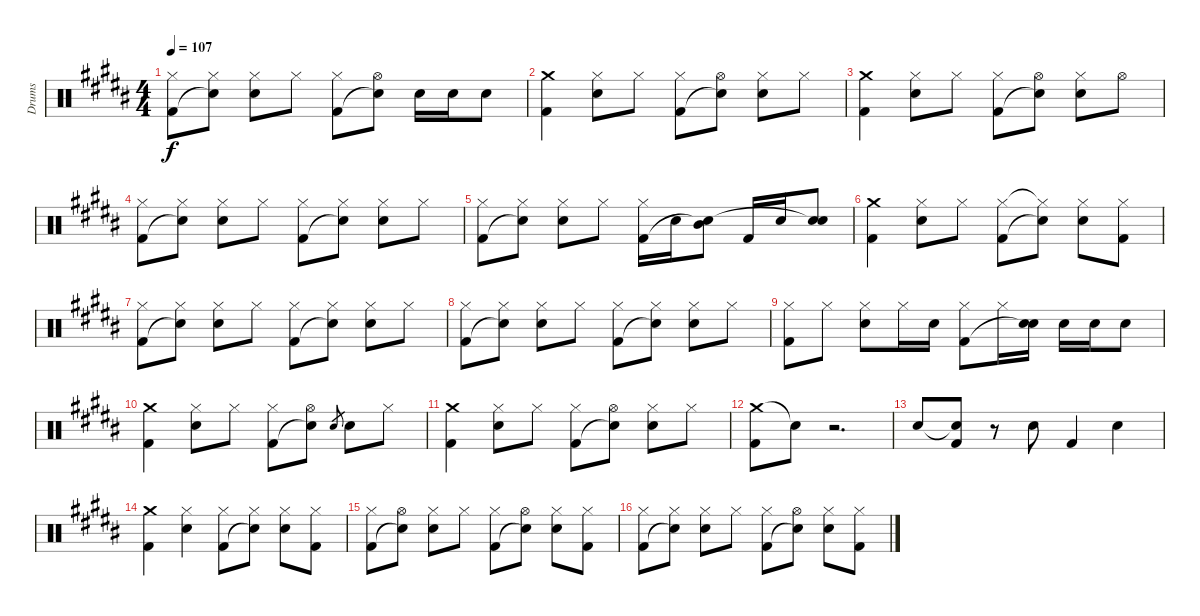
\track ("Drums" "Drums") {instrument percussion}
\staff {score}
\articulation defaults
\ts (4 4)
\tempo 107
\clef neutral
\ks b
("Hi-Hat (closed)" "Kick (hit) 2").8{dy f} ("Hi-Hat (closed)" "Snare (hit)"{t}).8 ("Hi-Hat (closed)" "Snare (hit) 2").8 "Hi-Hat (closed)".8 ("Hi-Hat (closed)" "Kick (hit) 2").8 ("Hi-Hat (open)" "Snare (hit)"{t}).8 "Snare (hit) 2".16 "Snare (hit) 2".16 "Snare (hit) 2".8 |
("Crash medium (hit)" "Kick (hit) 2").4 ("Hi-Hat (closed)" "Snare (hit) 2").8 "Hi-Hat (closed)".8 ("Hi-Hat (closed)" "Kick (hit) 2").8 ("Hi-Hat (open)" "Snare (hit)"{t}).8 ("Hi-Hat (closed)" "Snare (hit) 2").8 "Hi-Hat (closed)".8 |
("Crash medium (hit)" "Kick (hit) 2").4 ("Hi-Hat (closed)" "Snare (hit) 2").8 "Hi-Hat (closed)".8 ("Hi-Hat (closed)" "Kick (hit) 2").8 ("Hi-Hat (open)" "Snare (hit)"{t}).8 ("Hi-Hat (closed)" "Snare (hit) 2").8 "Hi-Hat (open)".8 |
("Hi-Hat (closed)" "Kick (hit) 2").8 ("Hi-Hat (closed)" "Snare (hit)"{t}).8 ("Hi-Hat (closed)" "Snare (hit) 2").8 "Hi-Hat (closed)".8 ("Hi-Hat (closed)" "Kick (hit) 2").8 ("Hi-Hat (closed)" "Snare (hit)"{t}).8 ("Hi-Hat (closed)" "Electric Snare (hit)").8 "Hi-Hat (closed)".8 |
("Hi-Hat (closed)" "Kick (hit) 2").8 ("Hi-Hat (closed)" "Snare (hit)"{t}).8 ("Hi-Hat (closed)" "Snare (hit) 2").8 "Hi-Hat (closed)".8 ("Hi-Hat (closed)" "Kick (hit) 2").16 "Snare (hit) 2".16 ("Mid Tom (hit)" "Snare (hit)"{t}).8 "Kick (hit) 2".16 "Snare (hit) 2".16 ("Snare (hit) 2" "Snare (hit)"{t}).8 |
("Crash medium (hit)" "Kick (hit) 2").4 ("Hi-Hat (closed)" "Snare (hit) 2").8 "Hi-Hat (closed)".8 ("Hi-Hat (closed)" "Kick (hit) 2").8 ("Hi-Hat (closed)"{t} "Snare (hit)"{t}).8 ("Hi-Hat (closed)" "Snare (hit) 2").8 ("Hi-Hat (closed)" "Kick (hit) 2").8 |
("Hi-Hat (closed)" "Kick (hit) 2").8 ("Hi-Hat (closed)" "Snare (hit)"{t}).8 ("Hi-Hat (closed)" "Snare (hit) 2").8 "Hi-Hat (closed)".8 ("Hi-Hat (closed)" "Kick (hit) 2").8 ("Hi-Hat (closed)" "Snare (hit)"{t}).8 ("Hi-Hat (closed)" "Snare (hit) 2").8 "Hi-Hat (closed)".8 |
("Hi-Hat (closed)" "Kick (hit) 2").8 ("Hi-Hat (closed)" "Snare (hit)"{t}).8 ("Hi-Hat (closed)" "Snare (hit) 2").8 "Hi-Hat (closed)".8 ("Hi-Hat (closed)" "Kick (hit) 2").8 ("Hi-Hat (closed)" "Snare (hit)"{t}).8 ("Hi-Hat (closed)" "Snare (hit) 2").8 "Hi-Hat (closed)".8 |
("Hi-Hat (closed)" "Kick (hit) 2").8 "Hi-Hat (closed)".8 ("Hi-Hat (closed)" "Snare (hit) 2").8 "Hi-Hat (closed)".16 "Snare (hit) 2".16 ("Hi-Hat (closed)" "Kick (hit) 2").8 "Hi-Hat (closed)".16 ("Snare (hit) 2" "Snare (hit)"{t}).16 "Snare (hit) 2".16 "Snare (hit) 2".16 "Snare (hit) 2".8 |
("Crash medium (hit)" "Kick (hit) 2").4 ("Hi-Hat (closed)" "Snare (hit) 2").8 "Hi-Hat (closed)".8 ("Hi-Hat (closed)" "Kick (hit) 2").8 ("Hi-Hat (open)" "Snare (hit)"{t}).8 "Snare (hit) 2".8{gr} "Snare (hit) 2".8 "Hi-Hat (closed)".8 |
("Crash medium (hit)" "Kick (hit) 2").4 ("Hi-Hat (closed)" "Snare (hit) 2").8 "Hi-Hat (closed)".8 ("Hi-Hat (closed)" "Kick (hit) 2").8 ("Hi-Hat (open)" "Snare (hit)"{t}).8 ("Hi-Hat (closed)" "Snare (hit) 2").8 "Hi-Hat (closed)".8 |
("Crash medium (hit)" "Kick (hit) 2").8 "Snare (hit)"{t}.8 r.2{d} |
"Snare (hit) 2".8 ("Snare (hit)"{t} "Kick (hit) 2").8 r.8 "Snare (hit) 2".8 "Kick (hit) 2".4 "Electric Snare (hit)".4 |
("Crash medium (hit)" "Kick (hit) 2").4 ("Hi-Hat (closed)" "Snare (hit) 2").4 ("Hi-Hat (closed)" "Kick (hit) 2").8 ("Hi-Hat (closed)" "Snare (hit)"{t}).8 ("Hi-Hat (closed)" "Snare (hit) 2").8 ("Hi-Hat (closed)" "Kick (hit) 2").8 |
("Hi-Hat (closed)" "Kick (hit) 2").8 ("Hi-Hat (open)" "Snare (hit)"{t}).8 ("Hi-Hat (closed)" "Snare (hit) 2").8 "Hi-Hat (closed)".8 ("Hi-Hat (closed)" "Kick (hit) 2").8 ("Hi-Hat (open)" "Snare (hit)"{t}).8 ("Hi-Hat (closed)" "Snare (hit) 2").8 ("Hi-Hat (closed)" "Kick (hit) 2").8 |
("Hi-Hat (closed)" "Kick (hit) 2").8 ("Hi-Hat (closed)" "Snare (hit)"{t}).8 ("Hi-Hat (closed)" "Snare (hit) 2").8 "Hi-Hat (closed)".8 ("Hi-Hat (closed)" "Kick (hit) 2").8 ("Hi-Hat (open)" "Snare (hit)"{t}).8 ("Hi-Hat (closed)" "Snare (hit) 2").8 ("Hi-Hat (closed)" "Kick (hit) 2").8
